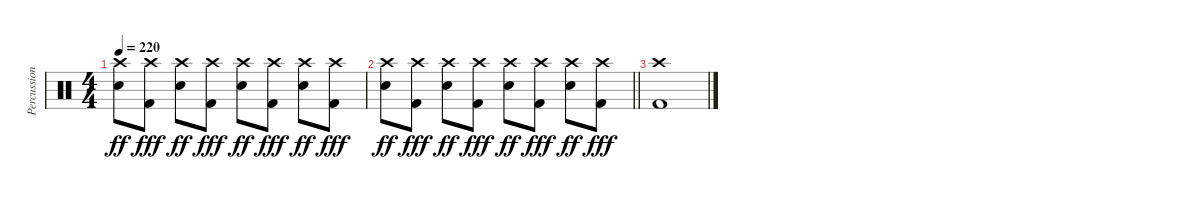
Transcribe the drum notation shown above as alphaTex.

\track ("Percussion" "Percussion") {instrument percussion}
\staff {score}
\articulation defaults
\ts (4 4)
\tempo 220
\clef neutral
\ks c
("Crash high (hit)" "Electric Snare (hit)").8{dy ff} ("Crash high (hit)" "Kick (hit) 2").8{dy fff} ("Crash high (hit)" "Electric Snare (hit)").8{dy ff} ("Crash high (hit)" "Kick (hit) 2").8{dy fff} ("Crash high (hit)" "Electric Snare (hit)").8{dy ff} ("Crash high (hit)" "Kick (hit) 2").8{dy fff} ("Crash high (hit)" "Electric Snare (hit)").8{dy ff} ("Crash high (hit)" "Kick (hit) 2").8{dy fff} |
\barLineRight lightlight
("Crash high (hit)" "Electric Snare (hit)").8{dy ff} ("Crash high (hit)" "Kick (hit) 2").8{dy fff} ("Crash high (hit)" "Electric Snare (hit)").8{dy ff} ("Crash high (hit)" "Kick (hit) 2").8{dy fff} ("Crash high (hit)" "Electric Snare (hit)").8{dy ff} ("Crash high (hit)" "Kick (hit) 2").8{dy fff} ("Crash high (hit)" "Electric Snare (hit)").8{dy ff} ("Crash high (hit)" "Kick (hit) 2").8{dy fff} |
("Crash high (hit)" "Kick (hit) 2").1
